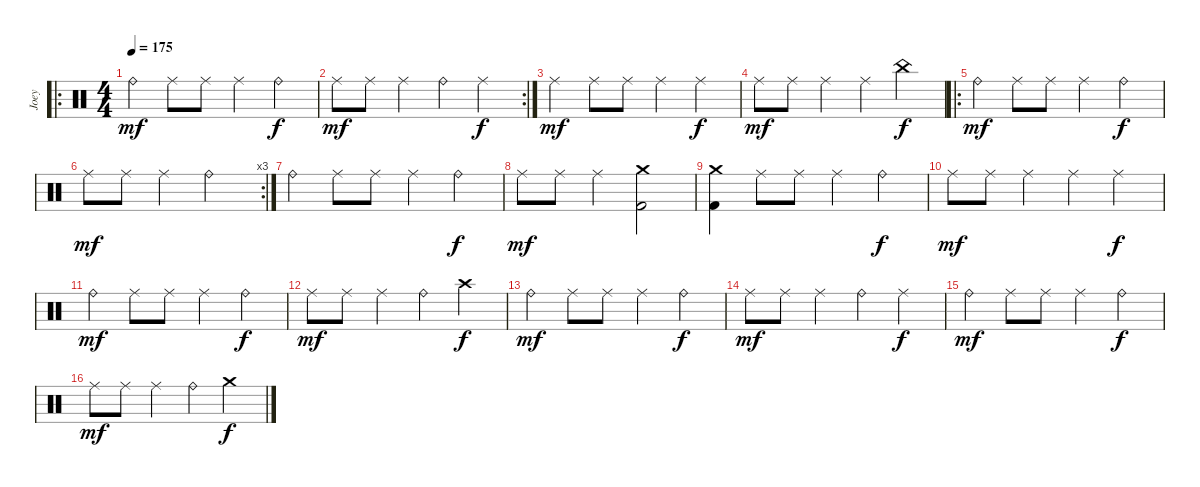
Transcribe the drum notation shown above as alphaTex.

\track ("Joey" "Joey") {instrument percussion}
\staff {score}
\articulation defaults
\ro
\ts (4 4)
\tempo 175
\clef neutral
\ks c "Ride (bell)".4{dy mf} "Ride (middle)".8 "Ride (middle)".8 "Ride (middle)".4 "Ride (bell)".4{dy f}
|
\rc 2 "Ride (middle)".8{dy mf} "Ride (middle)".8 "Ride (middle)".4 "Ride (bell)".4 "Ride (middle)".4{dy f}
|
"Ride (middle)".4{dy mf} "Ride (middle)".8 "Ride (middle)".8 "Ride (middle)".4 "Ride (middle)".4{dy f} |
"Ride (middle)".8{dy mf} "Ride (middle)".8 "Ride (middle)".4 "Ride (middle)".4 "China (hit)".4{dy f} |
\ro "Ride (bell)".4{dy mf} "Ride (middle)".8 "Ride (middle)".8 "Ride (middle)".4 "Ride (bell)".4{dy f}
|
\rc 3 "Ride (middle)".8{dy mf} "Ride (middle)".8 "Ride (middle)".4 "Ride (bell)".2
|
"Ride (bell)".4 "Ride (middle)".8 "Ride (middle)".8 "Ride (middle)".4 "Ride (bell)".4{dy f} |
"Ride (middle)".8{dy mf} "Ride (middle)".8 "Ride (middle)".4 ("Crash medium (hit)" "Kick (hit) 2").2 |
("Crash medium (hit)" "Kick (hit) 2").4 "Ride (middle)".8 "Ride (middle)".8 "Ride (middle)".4 "Ride (bell)".4{dy f} |
"Ride (middle)".8{dy mf} "Ride (middle)".8 "Ride (middle)".4 "Ride (middle)".4 "Ride (middle)".4{dy f} |
"Ride (bell)".4{dy mf} "Ride (middle)".8 "Ride (middle)".8 "Ride (middle)".4 "Ride (bell)".4{dy f} |
"Ride (middle)".8{dy mf} "Ride (middle)".8 "Ride (middle)".4 "Ride (bell)".4 "Crash high (hit)".4{dy f} |
"Ride (bell)".4{dy mf} "Ride (middle)".8 "Ride (middle)".8 "Ride (middle)".4 "Ride (bell)".4{dy f} |
"Ride (middle)".8{dy mf} "Ride (middle)".8 "Ride (middle)".4 "Ride (bell)".4 "Ride (middle)".4{dy f} |
"Ride (bell)".4{dy mf} "Ride (middle)".8 "Ride (middle)".8 "Ride (middle)".4 "Ride (bell)".4{dy f} |
"Ride (middle)".8{dy mf} "Ride (middle)".8 "Ride (middle)".4 "Ride (bell)".4 "Crash medium (hit)".4{dy f}
